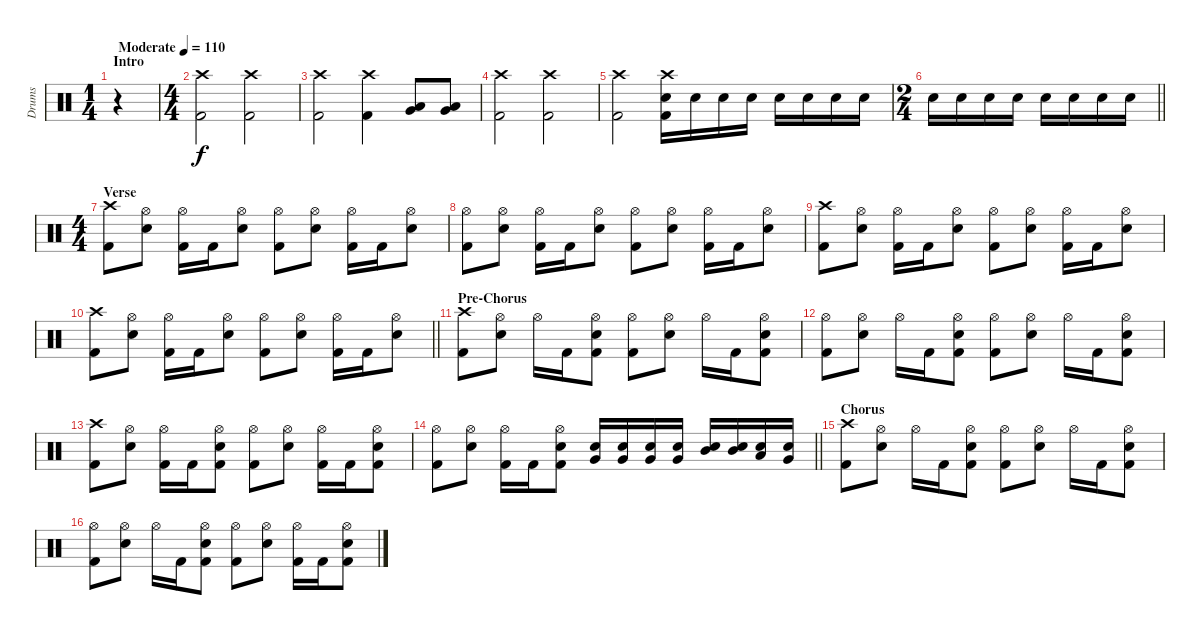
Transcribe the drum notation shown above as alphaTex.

\track ("Drums" "Drums") {instrument percussion}
\staff {score}
\articulation defaults
\ts (1 4)
\section ("" "Intro")
\tempo (110 "Moderate")
\clef neutral
\ks c
r.4{dy f} |
\ts (4 4)
("Crash high (hit)" "Kick (hit) 2").2 ("Crash high (hit)" "Kick (hit) 2").2 |
("Crash high (hit)" "Kick (hit) 2").2 ("Crash high (hit)" "Kick (hit) 2").4 ("Low Tom (hit)" "Very Low Tom (hit)").8 ("Low Tom (hit)" "Very Low Tom (hit)").8 |
("Crash high (hit)" "Kick (hit) 2").2 ("Crash high (hit)" "Kick (hit) 2").2 |
("Crash high (hit)" "Kick (hit) 2").2 ("Crash high (hit)" "Electric Snare (hit)" "Kick (hit) 2").16 "Electric Snare (hit)".16 "Electric Snare (hit)".16 "Electric Snare (hit)".16 "Electric Snare (hit)".16 "Electric Snare (hit)".16 "Electric Snare (hit)".16 "Electric Snare (hit)".16 |
\ts (2 4)
\barLineRight lightlight "Electric Snare (hit)".16 "Electric Snare (hit)".16 "Electric Snare (hit)".16 "Electric Snare (hit)".16 "Electric Snare (hit)".16 "Electric Snare (hit)".16 "Electric Snare (hit)".16 "Electric Snare (hit)".16
|
\ts (4 4)
\section ("" "Verse")
("Crash high (hit)" "Kick (hit) 2").8 ("Hi-Hat (open)" "Electric Snare (hit)").8 ("Hi-Hat (open)" "Kick (hit) 2").16 "Kick (hit) 2".16 ("Hi-Hat (open)" "Electric Snare (hit)").8 ("Hi-Hat (open)" "Kick (hit) 2").8 ("Hi-Hat (open)" "Electric Snare (hit)").8 ("Hi-Hat (open)" "Kick (hit) 2").16 "Kick (hit) 2".16 ("Hi-Hat (open)" "Electric Snare (hit)").8 |
("Hi-Hat (open)" "Kick (hit) 2").8 ("Hi-Hat (open)" "Electric Snare (hit)").8 ("Hi-Hat (open)" "Kick (hit) 2").16 "Kick (hit) 2".16 ("Hi-Hat (open)" "Electric Snare (hit)").8 ("Hi-Hat (open)" "Kick (hit) 2").8 ("Hi-Hat (open)" "Electric Snare (hit)").8 ("Hi-Hat (open)" "Kick (hit) 2").16 "Kick (hit) 2".16 ("Hi-Hat (open)" "Electric Snare (hit)").8 |
("Crash high (hit)" "Kick (hit) 2").8 ("Hi-Hat (open)" "Electric Snare (hit)").8 ("Hi-Hat (open)" "Kick (hit) 2").16 "Kick (hit) 2".16 ("Hi-Hat (open)" "Electric Snare (hit)").8 ("Hi-Hat (open)" "Kick (hit) 2").8 ("Hi-Hat (open)" "Electric Snare (hit)").8 ("Hi-Hat (open)" "Kick (hit) 2").16 "Kick (hit) 2".16 ("Hi-Hat (open)" "Electric Snare (hit)").8 |
\barLineRight lightlight
("Crash high (hit)" "Kick (hit) 2").8 ("Hi-Hat (open)" "Electric Snare (hit)").8 ("Hi-Hat (open)" "Kick (hit) 2").16 "Kick (hit) 2".16 ("Hi-Hat (open)" "Electric Snare (hit)").8 ("Hi-Hat (open)" "Kick (hit) 2").8 ("Hi-Hat (open)" "Electric Snare (hit)").8 ("Hi-Hat (open)" "Kick (hit) 2").16 "Kick (hit) 2".16 ("Hi-Hat (open)" "Electric Snare (hit)").8 |
\section ("" "Pre-Chorus")
("Crash high (hit)" "Kick (hit) 2").8 ("Hi-Hat (open)" "Electric Snare (hit)").8 "Hi-Hat (open)".16 "Kick (hit) 2".16 ("Hi-Hat (open)" "Electric Snare (hit)" "Kick (hit) 2").8 ("Hi-Hat (open)" "Kick (hit) 2").8 ("Hi-Hat (open)" "Electric Snare (hit)").8 "Hi-Hat (open)".16 "Kick (hit) 2".16 ("Hi-Hat (open)" "Electric Snare (hit)" "Kick (hit) 2").8 |
("Hi-Hat (open)" "Kick (hit) 2").8 ("Hi-Hat (open)" "Electric Snare (hit)").8 "Hi-Hat (open)".16 "Kick (hit) 2".16 ("Hi-Hat (open)" "Electric Snare (hit)" "Kick (hit) 2").8 ("Hi-Hat (open)" "Kick (hit) 2").8 ("Hi-Hat (open)" "Electric Snare (hit)").8 "Hi-Hat (open)".16 "Kick (hit) 2".16 ("Hi-Hat (open)" "Electric Snare (hit)" "Kick (hit) 2").8 |
("Crash high (hit)" "Kick (hit) 2").8 ("Hi-Hat (open)" "Electric Snare (hit)").8 ("Hi-Hat (open)" "Kick (hit) 2").16 "Kick (hit) 2".16 ("Hi-Hat (open)" "Electric Snare (hit)" "Kick (hit) 2").8 ("Hi-Hat (open)" "Kick (hit) 2").8 ("Hi-Hat (open)" "Electric Snare (hit)").8 ("Hi-Hat (open)" "Kick (hit) 2").16 "Kick (hit) 2".16 ("Hi-Hat (open)" "Electric Snare (hit)" "Kick (hit) 2").8 |
\barLineRight lightlight
("Hi-Hat (open)" "Kick (hit) 2").8 ("Hi-Hat (open)" "Electric Snare (hit)").8 ("Hi-Hat (open)" "Kick (hit) 2").16 "Kick (hit) 2".16 ("Hi-Hat (open)" "Electric Snare (hit)" "Kick (hit) 2").8 ("Very Low Tom (hit)" "Electric Snare (hit)").16 ("Very Low Tom (hit)" "Electric Snare (hit)").16 ("Very Low Tom (hit)" "Electric Snare (hit)").16 ("Very Low Tom (hit)" "Electric Snare (hit)").16 ("Mid Tom (hit)" "Electric Snare (hit)").16 ("Mid Tom (hit)" "Electric Snare (hit)").16 ("Low Tom (hit)" "Electric Snare (hit)").16 ("Very Low Tom (hit)" "Electric Snare (hit)").16 |
\section ("" "Chorus")
("Crash high (hit)" "Kick (hit) 2").8 ("Hi-Hat (open)" "Electric Snare (hit)").8 "Hi-Hat (open)".16 "Kick (hit) 2".16 ("Hi-Hat (open)" "Electric Snare (hit)" "Kick (hit) 2").8 ("Hi-Hat (open)" "Kick (hit) 2").8 ("Hi-Hat (open)" "Electric Snare (hit)").8 "Hi-Hat (open)".16 "Kick (hit) 2".16 ("Hi-Hat (open)" "Electric Snare (hit)" "Kick (hit) 2").8 |
("Hi-Hat (open)" "Kick (hit) 2").8 ("Hi-Hat (open)" "Electric Snare (hit)").8 "Hi-Hat (open)".16 "Kick (hit) 2".16 ("Hi-Hat (open)" "Electric Snare (hit)" "Kick (hit) 2").8 ("Hi-Hat (open)" "Kick (hit) 2").8 ("Hi-Hat (open)" "Electric Snare (hit)").8 ("Hi-Hat (open)" "Kick (hit) 2").16 "Kick (hit) 2".16 ("Hi-Hat (open)" "Electric Snare (hit)" "Kick (hit) 2").8
